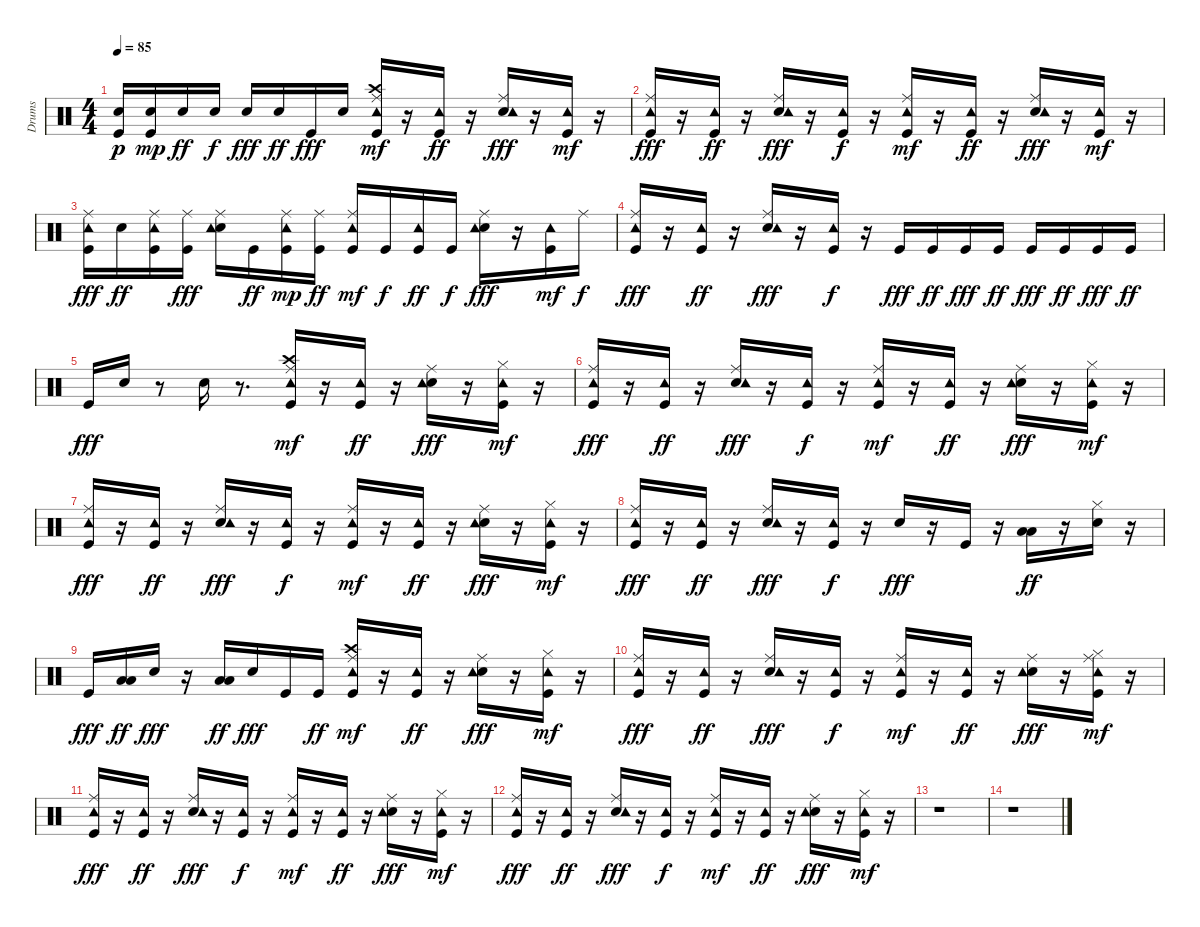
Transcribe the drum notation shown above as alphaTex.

\track ("Drums    " "Drums    ") {instrument percussion}
\staff {score}
\articulation defaults
\ts (4 4)
\tempo 85
\clef neutral
\ks c
("Kick (hit)" "Snare (hit) 2").16{dy p} ("Kick (hit)" "Snare (hit) 2").16{dy mp} "Snare (hit) 2".16{dy ff} "Snare (hit) 2".16{dy f} "Snare (hit) 2".16{dy fff} "Snare (hit) 2".16{dy ff} "Kick (hit)".16{dy fff} "Snare (hit) 2".16 ("Kick (hit)" "Ride (middle)" "Crash high (hit)" "Tambourine (hit)").16{dy mf} r.16 ("Kick (hit)" "Tambourine (hit)").16{dy ff} r.16 ("Snare (hit) 2" "Ride (middle)" "Tambourine (hit)").16{dy fff} r.16 ("Kick (hit)" "Tambourine (hit)").16{dy mf} r.16 |
("Kick (hit)" "Ride (middle)" "Tambourine (hit)").16{dy fff} r.16 ("Kick (hit)" "Tambourine (hit)").16{dy ff} r.16 ("Snare (hit) 2" "Ride (middle)" "Tambourine (hit)").16{dy fff} r.16 ("Kick (hit)" "Tambourine (hit)").16{dy f} r.16 ("Kick (hit)" "Ride (middle)" "Tambourine (hit)").16{dy mf} r.16 ("Kick (hit)" "Tambourine (hit)").16{dy ff} r.16 ("Snare (hit) 2" "Ride (middle)" "Tambourine (hit)").16{dy fff} r.16 ("Kick (hit)" "Tambourine (hit)").16{dy mf} r.16 |
("Kick (hit)" "Ride (middle)" "Tambourine (hit)").16{dy fff} "Snare (hit) 2".16{dy ff} ("Kick (hit)" "Ride (middle)" "Tambourine (hit)").16 ("Kick (hit)" "Ride (middle)").16{dy fff} ("Snare (hit) 2" "Ride (middle)" "Tambourine (hit)").16 "Kick (hit)".16{dy ff} ("Kick (hit)" "Ride (middle)" "Tambourine (hit)").16{dy mp} ("Kick (hit)" "Ride (middle)").16{dy ff} ("Kick (hit)" "Ride (middle)" "Tambourine (hit)").16{dy mf} "Kick (hit)".16{dy f} ("Kick (hit)" "Tambourine (hit)").16{dy ff} "Kick (hit)".16{dy f} ("Snare (hit) 2" "Ride (middle)" "Tambourine (hit)").16{dy fff} r.16 ("Kick (hit)" "Tambourine (hit)").16{dy mf} "Ride (middle)".16{dy f} |
("Kick (hit)" "Ride (middle)" "Tambourine (hit)").16{dy fff} r.16 ("Kick (hit)" "Tambourine (hit)").16{dy ff} r.16 ("Snare (hit) 2" "Ride (middle)" "Tambourine (hit)").16{dy fff} r.16 ("Kick (hit)" "Tambourine (hit)").16{dy f} r.16 "Kick (hit)".16{dy fff} "Kick (hit)".16{dy ff} "Kick (hit)".16{dy fff} "Kick (hit)".16{dy ff} "Kick (hit)".16{dy fff} "Kick (hit)".16{dy ff} "Kick (hit)".16{dy fff} "Kick (hit)".16{dy ff} |
"Kick (hit)".16{dy fff} "Snare (hit) 2".16 r.8 "Snare (hit) 2".16 r.8{d} ("Kick (hit)" "Ride (middle)" "Crash high (hit)" "Tambourine (hit)").16{dy mf} r.16 ("Kick (hit)" "Tambourine (hit)").16{dy ff} r.16 ("Snare (hit) 2" "Ride (middle)" "Tambourine (hit)").16{dy fff} r.16 ("Kick (hit)" "Hi-Hat (closed)" "Tambourine (hit)").16{dy mf} r.16 |
("Kick (hit)" "Ride (middle)" "Tambourine (hit)").16{dy fff} r.16 ("Kick (hit)" "Tambourine (hit)").16{dy ff} r.16 ("Snare (hit) 2" "Ride (middle)" "Tambourine (hit)").16{dy fff} r.16 ("Kick (hit)" "Tambourine (hit)").16{dy f} r.16 ("Kick (hit)" "Ride (middle)" "Tambourine (hit)").16{dy mf} r.16 ("Kick (hit)" "Tambourine (hit)").16{dy ff} r.16 ("Snare (hit) 2" "Ride (middle)" "Tambourine (hit)").16{dy fff} r.16 ("Kick (hit)" "Hi-Hat (closed)" "Tambourine (hit)").16{dy mf} r.16 |
("Kick (hit)" "Ride (middle)" "Tambourine (hit)").16{dy fff} r.16 ("Kick (hit)" "Tambourine (hit)").16{dy ff} r.16 ("Snare (hit) 2" "Ride (middle)" "Tambourine (hit)").16{dy fff} r.16 ("Kick (hit)" "Tambourine (hit)").16{dy f} r.16 ("Kick (hit)" "Ride (middle)" "Tambourine (hit)").16{dy mf} r.16 ("Kick (hit)" "Tambourine (hit)").16{dy ff} r.16 ("Snare (hit) 2" "Ride (middle)" "Tambourine (hit)").16{dy fff} r.16 ("Kick (hit)" "Hi-Hat (closed)" "Tambourine (hit)").16{dy mf} r.16 |
("Kick (hit)" "Ride (middle)" "Tambourine (hit)").16{dy fff} r.16 ("Kick (hit)" "Tambourine (hit)").16{dy ff} r.16 ("Snare (hit) 2" "Ride (middle)" "Tambourine (hit)").16{dy fff} r.16 ("Kick (hit)" "Tambourine (hit)").16{dy f} r.16 "Snare (hit) 2".16{dy fff} r.16 "Kick (hit)".16 r.16 ("Low Floor Tom (hit)" "Low Tom (hit)").16{dy ff} r.16 ("Snare (hit) 2" "Hi-Hat (closed)").16 r.16 |
"Kick (hit)".16{dy fff} ("Low Floor Tom (hit)" "Low Tom (hit)").16{dy ff} "Snare (hit) 2".16{dy fff} r.16 ("Low Floor Tom (hit)" "Low Tom (hit)").16{dy ff} "Snare (hit) 2".16{dy fff} "Kick (hit)".16 "Kick (hit)".16{dy ff} ("Kick (hit)" "Ride (middle)" "Crash high (hit)" "Tambourine (hit)").16{dy mf} r.16 ("Kick (hit)" "Tambourine (hit)").16{dy ff} r.16 ("Snare (hit) 2" "Ride (middle)" "Tambourine (hit)").16{dy fff} r.16 ("Kick (hit)" "Hi-Hat (closed)" "Tambourine (hit)").16{dy mf} r.16 |
("Kick (hit)" "Ride (middle)" "Tambourine (hit)").16{dy fff} r.16 ("Kick (hit)" "Tambourine (hit)").16{dy ff} r.16 ("Snare (hit) 2" "Ride (middle)" "Tambourine (hit)").16{dy fff} r.16 ("Kick (hit)" "Tambourine (hit)").16{dy f} r.16 ("Kick (hit)" "Ride (middle)" "Tambourine (hit)").16{dy mf} r.16 ("Kick (hit)" "Tambourine (hit)").16{dy ff} r.16 ("Snare (hit) 2" "Ride (middle)" "Tambourine (hit)").16{dy fff} r.16 ("Kick (hit)" "Hi-Hat (closed)" "Ride (middle)" "Tambourine (hit)").16{dy mf} r.16 |
("Kick (hit)" "Ride (middle)" "Tambourine (hit)").16{dy fff} r.16 ("Kick (hit)" "Tambourine (hit)").16{dy ff} r.16 ("Snare (hit) 2" "Ride (middle)" "Tambourine (hit)").16{dy fff} r.16 ("Kick (hit)" "Tambourine (hit)").16{dy f} r.16 ("Kick (hit)" "Ride (middle)" "Tambourine (hit)").16{dy mf} r.16 ("Kick (hit)" "Tambourine (hit)").16{dy ff} r.16 ("Snare (hit) 2" "Ride (middle)" "Tambourine (hit)").16{dy fff} r.16 ("Kick (hit)" "Hi-Hat (closed)" "Tambourine (hit)").16{dy mf} r.16 |
("Kick (hit)" "Ride (middle)" "Tambourine (hit)").16{dy fff} r.16 ("Kick (hit)" "Tambourine (hit)").16{dy ff} r.16 ("Snare (hit) 2" "Ride (middle)" "Tambourine (hit)").16{dy fff} r.16 ("Kick (hit)" "Tambourine (hit)").16{dy f} r.16 ("Kick (hit)" "Ride (middle)" "Tambourine (hit)").16{dy mf} r.16 ("Kick (hit)" "Tambourine (hit)").16{dy ff} r.16 ("Snare (hit) 2" "Ride (middle)" "Tambourine (hit)").16{dy fff} r.16 ("Kick (hit)" "Hi-Hat (closed)" "Tambourine (hit)").16{dy mf} r.16 |
r.1 |
r.1
